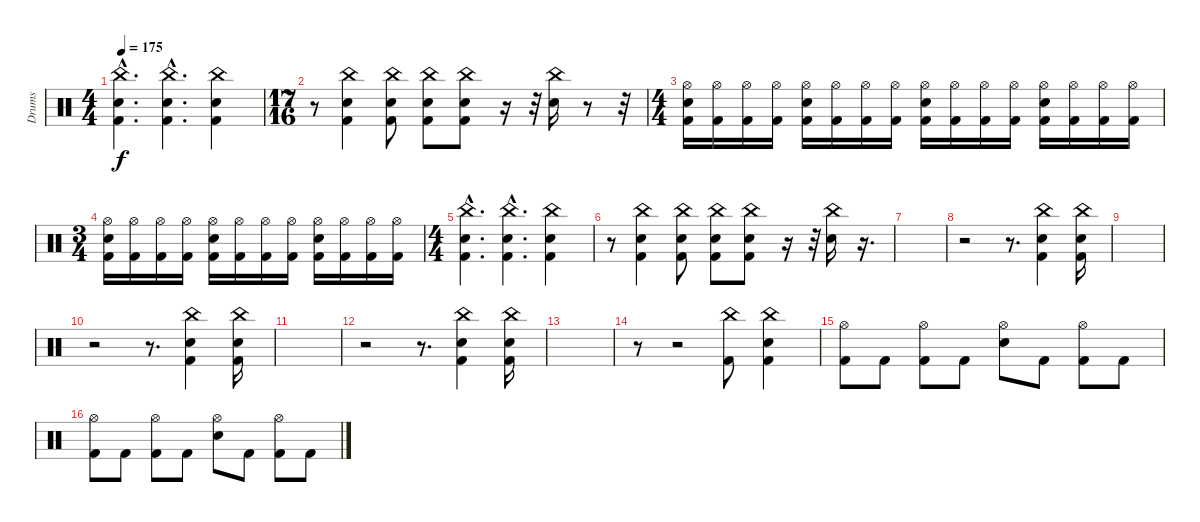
\track ("Drums" "Drums") {instrument percussion}
\staff {score}
\articulation defaults
\ts (4 4)
\tempo 175
\clef neutral
\ks c
("China (hit)"{hac} "Electric Snare (hit)"{hac} "Kick (hit) 2"{hac}).4{d dy f} ("China (hit)"{hac} "Electric Snare (hit)"{hac} "Kick (hit) 2"{hac}).4{d} ("China (hit)" "Electric Snare (hit)" "Kick (hit) 2").4 |
\ts (17 16)
r.8 ("China (hit)" "Electric Snare (hit)" "Kick (hit) 2").4 ("China (hit)" "Electric Snare (hit)" "Kick (hit) 2").8 ("China (hit)" "Electric Snare (hit)" "Kick (hit) 2").8 ("China (hit)" "Electric Snare (hit)" "Kick (hit) 2").8 r.16 r.32 ("China (hit)" "Electric Snare (hit)").16 r.8 r.32 |
\ts (4 4)
("Hi-Hat (open)" "Electric Snare (hit)" "Kick (hit) 2").16 ("Hi-Hat (open)" "Kick (hit) 2").16 ("Hi-Hat (open)" "Kick (hit) 2").16 ("Hi-Hat (open)" "Kick (hit) 2").16 ("Hi-Hat (open)" "Electric Snare (hit)" "Kick (hit) 2").16 ("Hi-Hat (open)" "Kick (hit) 2").16 ("Hi-Hat (open)" "Kick (hit) 2").16 ("Hi-Hat (open)" "Kick (hit) 2").16 ("Hi-Hat (open)" "Electric Snare (hit)" "Kick (hit) 2").16 ("Hi-Hat (open)" "Kick (hit) 2").16 ("Hi-Hat (open)" "Kick (hit) 2").16 ("Hi-Hat (open)" "Kick (hit) 2").16 ("Hi-Hat (open)" "Electric Snare (hit)" "Kick (hit) 2").16 ("Hi-Hat (open)" "Kick (hit) 2").16 ("Hi-Hat (open)" "Kick (hit) 2").16 ("Hi-Hat (open)" "Kick (hit) 2").16 |
\ts (3 4)
("Hi-Hat (open)" "Electric Snare (hit)" "Kick (hit) 2").16 ("Hi-Hat (open)" "Kick (hit) 2").16 ("Hi-Hat (open)" "Kick (hit) 2").16 ("Hi-Hat (open)" "Kick (hit) 2").16 ("Hi-Hat (open)" "Electric Snare (hit)" "Kick (hit) 2").16 ("Hi-Hat (open)" "Kick (hit) 2").16 ("Hi-Hat (open)" "Kick (hit) 2").16 ("Hi-Hat (open)" "Kick (hit) 2").16 ("Hi-Hat (open)" "Electric Snare (hit)" "Kick (hit) 2").16 ("Hi-Hat (open)" "Kick (hit) 2").16 ("Hi-Hat (open)" "Kick (hit) 2").16 ("Hi-Hat (open)" "Kick (hit) 2").16 |
\ts (4 4)
("China (hit)"{hac} "Electric Snare (hit)"{hac} "Kick (hit) 2"{hac}).4{d} ("China (hit)"{hac} "Electric Snare (hit)"{hac} "Kick (hit) 2"{hac}).4{d} ("China (hit)" "Electric Snare (hit)" "Kick (hit) 2").4 |
r.8 ("China (hit)" "Electric Snare (hit)" "Kick (hit) 2").4 ("China (hit)" "Electric Snare (hit)" "Kick (hit) 2").8 ("China (hit)" "Electric Snare (hit)" "Kick (hit) 2").8 ("China (hit)" "Electric Snare (hit)" "Kick (hit) 2").8 r.16 r.32 ("China (hit)" "Electric Snare (hit)").16 r.16{d} |
|
r.2 r.8{d} ("China (hit)" "Electric Snare (hit)" "Kick (hit) 2").4 ("China (hit)" "Electric Snare (hit)" "Kick (hit) 2").16 |
|
r.2 r.8{d} ("China (hit)" "Electric Snare (hit)" "Kick (hit) 2").4 ("China (hit)" "Electric Snare (hit)" "Kick (hit) 2").16 |
|
r.2 r.8{d} ("China (hit)" "Electric Snare (hit)" "Kick (hit) 2").4 ("China (hit)" "Electric Snare (hit)" "Kick (hit) 2").16 |
|
r.8 r.2 ("China (hit)" "Kick (hit) 2").8 ("China (hit)" "Electric Snare (hit)" "Kick (hit) 2").4 |
("Hi-Hat (open)" "Kick (hit) 2").8 "Kick (hit) 2".8 ("Hi-Hat (open)" "Kick (hit) 2").8 "Kick (hit) 2".8 ("Hi-Hat (open)" "Electric Snare (hit)").8 "Kick (hit) 2".8 ("Hi-Hat (open)" "Kick (hit) 2").8 "Kick (hit) 2".8 |
("Hi-Hat (open)" "Kick (hit) 2").8 "Kick (hit) 2".8 ("Hi-Hat (open)" "Kick (hit) 2").8 "Kick (hit) 2".8 ("Hi-Hat (open)" "Electric Snare (hit)").8 "Kick (hit) 2".8 ("Hi-Hat (open)" "Kick (hit) 2").8 "Kick (hit) 2".8
